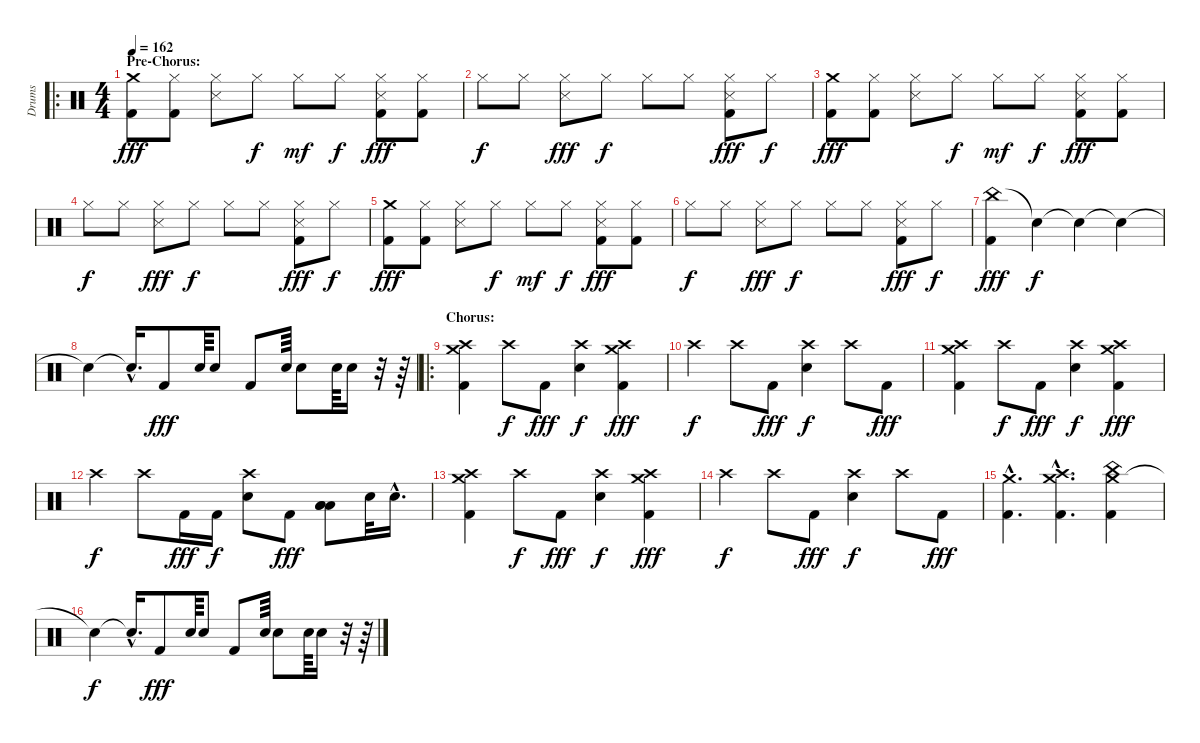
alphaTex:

\track ("Drums" "Drums") {instrument percussion}
\staff {score}
\articulation defaults
\ro
\ts (4 4)
\section ("" "Pre-Chorus:")
\tempo 162
\clef neutral
\ks c
("Crash medium (hit)" "Kick (hit) 2").8{dy fff} ("Hi-Hat (closed)" "Kick (hit) 2").8 ("Hi-Hat (closed)" "Metronome (hit)").8 "Hi-Hat (closed)".8{dy f} "Hi-Hat (closed)".8{dy mf} "Hi-Hat (closed)".8{dy f} ("Hi-Hat (closed)" "Metronome (hit)" "Kick (hit) 2").8{dy fff} ("Hi-Hat (closed)" "Kick (hit) 2").8 |
"Hi-Hat (closed)".8{dy f} "Hi-Hat (closed)".8 ("Hi-Hat (closed)" "Metronome (hit)").8{dy fff} "Hi-Hat (closed)".8{dy f} "Hi-Hat (closed)".8 "Hi-Hat (closed)".8 ("Hi-Hat (closed)" "Metronome (hit)" "Kick (hit) 2").8{dy fff} "Hi-Hat (closed)".8{dy f} |
("Crash medium (hit)" "Kick (hit) 2").8{dy fff} ("Hi-Hat (closed)" "Kick (hit) 2").8 ("Hi-Hat (closed)" "Metronome (hit)").8 "Hi-Hat (closed)".8{dy f} "Hi-Hat (closed)".8{dy mf} "Hi-Hat (closed)".8{dy f} ("Hi-Hat (closed)" "Metronome (hit)" "Kick (hit) 2").8{dy fff} ("Hi-Hat (closed)" "Kick (hit) 2").8 |
"Hi-Hat (closed)".8{dy f} "Hi-Hat (closed)".8 ("Hi-Hat (closed)" "Metronome (hit)").8{dy fff} "Hi-Hat (closed)".8{dy f} "Hi-Hat (closed)".8 "Hi-Hat (closed)".8 ("Hi-Hat (closed)" "Metronome (hit)" "Kick (hit) 2").8{dy fff} "Hi-Hat (closed)".8{dy f} |
("Crash medium (hit)" "Kick (hit) 2").8{dy fff} ("Hi-Hat (closed)" "Kick (hit) 2").8 ("Hi-Hat (closed)" "Metronome (hit)").8 "Hi-Hat (closed)".8{dy f} "Hi-Hat (closed)".8{dy mf} "Hi-Hat (closed)".8{dy f} ("Hi-Hat (closed)" "Metronome (hit)" "Kick (hit) 2").8{dy fff} ("Hi-Hat (closed)" "Kick (hit) 2").8 |
"Hi-Hat (closed)".8{dy f} "Hi-Hat (closed)".8 ("Hi-Hat (closed)" "Metronome (hit)").8{dy fff} "Hi-Hat (closed)".8{dy f} "Hi-Hat (closed)".8 "Hi-Hat (closed)".8 ("Hi-Hat (closed)" "Metronome (hit)" "Kick (hit) 2").8{dy fff} "Hi-Hat (closed)".8{dy f} |
("China (hit)" "Kick (hit) 2").4{dy fff} "Snare (hit)"{t}.4{dy f} "Snare (hit)"{t}.4 "Snare (hit)"{t}.4 |
"Snare (hit)"{t}.4 "Snare (hit)"{hac t}.16{d} "Kick (hit) 2".8{dy fff} "Snare (hit) 2".64 "Snare (hit) 2".8 "Kick (hit) 2".8 "Snare (hit) 2".64 "Snare (hit) 2".8 "Snare (hit) 2".64 "Snare (hit) 2".16 r.32 r.64 |
\ro
\section ("" "Chorus:")
("Crash high (hit)" "Crash medium (hit)" "Kick (hit) 2").4 "Crash high (hit)".8{dy f} "Kick (hit) 2".8{dy fff} ("Crash high (hit)" "Snare (hit) 2").4{dy f} ("Crash medium (hit)" "Crash high (hit)" "Kick (hit) 2").4{dy fff} |
"Crash high (hit)".4{dy f} "Crash high (hit)".8 "Kick (hit) 2".8{dy fff} ("Crash high (hit)" "Snare (hit) 2").4{dy f} "Crash high (hit)".8 "Kick (hit) 2".8{dy fff} |
("Crash high (hit)" "Crash medium (hit)" "Kick (hit) 2").4 "Crash high (hit)".8{dy f} "Kick (hit) 2".8{dy fff} ("Crash high (hit)" "Snare (hit) 2").4{dy f} ("Crash medium (hit)" "Crash high (hit)" "Kick (hit) 2").4{dy fff} |
"Crash high (hit)".4{dy f} "Crash high (hit)".8 "Kick (hit) 2".16{dy fff} "Kick (hit) 2".16{dy f} ("Crash high (hit)" "Snare (hit) 2").8 "Kick (hit) 2".8{dy fff} ("Low Floor Tom (hit)" "Low Floor Tom (hit)" "Low Tom (hit)").8 "Snare (hit) 2".32 "Snare (hit) 2"{hac}.16{d} |
("Crash high (hit)" "Crash medium (hit)" "Kick (hit) 2").4 "Crash high (hit)".8{dy f} "Kick (hit) 2".8{dy fff} ("Crash high (hit)" "Snare (hit) 2").4{dy f} ("Crash medium (hit)" "Crash high (hit)" "Kick (hit) 2").4{dy fff} |
"Crash high (hit)".4{dy f} "Crash high (hit)".8 "Kick (hit) 2".8{dy fff} ("Crash high (hit)" "Snare (hit) 2").4{dy f} "Crash high (hit)".8 "Kick (hit) 2".8{dy fff} |
("Crash medium (hit)"{hac} "Kick (hit) 2"{hac}).4{d} ("Crash high (hit)"{hac} "Crash medium (hit)"{hac} "Kick (hit) 2"{hac}).4{d} ("Crash medium (hit)" "China (hit)" "Kick (hit) 2").4 |
"Snare (hit)"{t}.4{dy f} "Snare (hit)"{hac t}.16{d} "Kick (hit) 2".8{dy fff} "Snare (hit) 2".64 "Snare (hit) 2".8 "Kick (hit) 2".8 "Snare (hit) 2".64 "Snare (hit) 2".8 "Snare (hit) 2".64 "Snare (hit) 2".16 r.32 r.64
